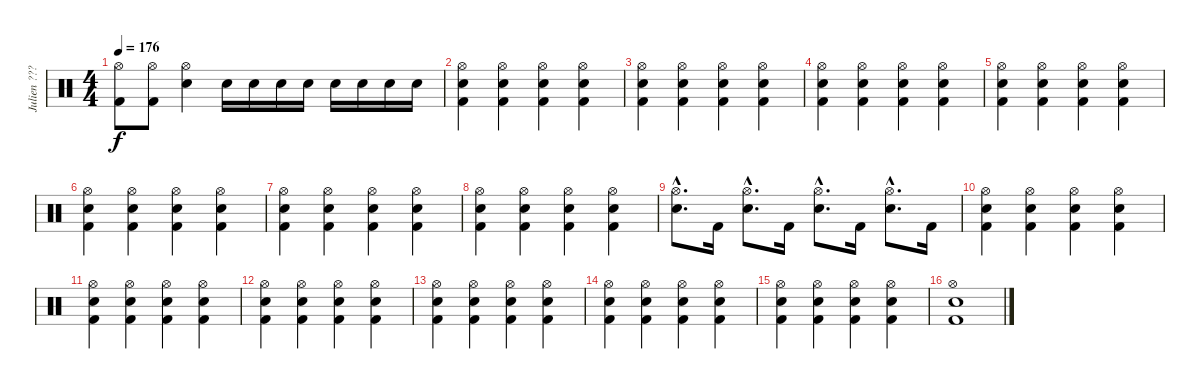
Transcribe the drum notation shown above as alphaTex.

\track ("Julien ??? (Drum)" "Julien ???") {instrument percussion}
\staff {score}
\articulation defaults
\ts (4 4)
\tempo 176
\clef neutral
\ks c
("Hi-Hat (open)" "Kick (hit) 2").8{dy f} ("Hi-Hat (open)" "Kick (hit) 2").8 ("Hi-Hat (open)" "Electric Snare (hit)").4 "Electric Snare (hit)".16 "Electric Snare (hit)".16 "Electric Snare (hit)".16 "Electric Snare (hit)".16 "Electric Snare (hit)".16 "Electric Snare (hit)".16 "Electric Snare (hit)".16 "Electric Snare (hit)".16 |
("Kick (hit) 2" "Hi-Hat (open)" "Electric Snare (hit)").4 ("Kick (hit) 2" "Hi-Hat (open)" "Electric Snare (hit)").4 ("Kick (hit) 2" "Hi-Hat (open)" "Electric Snare (hit)").4 ("Kick (hit) 2" "Hi-Hat (open)" "Electric Snare (hit)").4 |
("Kick (hit) 2" "Hi-Hat (open)" "Electric Snare (hit)").4 ("Kick (hit) 2" "Hi-Hat (open)" "Electric Snare (hit)").4 ("Kick (hit) 2" "Hi-Hat (open)" "Electric Snare (hit)").4 ("Kick (hit) 2" "Hi-Hat (open)" "Electric Snare (hit)").4 |
("Kick (hit) 2" "Hi-Hat (open)" "Electric Snare (hit)").4 ("Kick (hit) 2" "Hi-Hat (open)" "Electric Snare (hit)").4 ("Kick (hit) 2" "Hi-Hat (open)" "Electric Snare (hit)").4 ("Kick (hit) 2" "Hi-Hat (open)" "Electric Snare (hit)").4 |
("Kick (hit) 2" "Hi-Hat (open)" "Electric Snare (hit)").4 ("Kick (hit) 2" "Hi-Hat (open)" "Electric Snare (hit)").4 ("Kick (hit) 2" "Hi-Hat (open)" "Electric Snare (hit)").4 ("Kick (hit) 2" "Hi-Hat (open)" "Electric Snare (hit)").4 |
("Kick (hit) 2" "Hi-Hat (open)" "Electric Snare (hit)").4 ("Kick (hit) 2" "Hi-Hat (open)" "Electric Snare (hit)").4 ("Kick (hit) 2" "Hi-Hat (open)" "Electric Snare (hit)").4 ("Kick (hit) 2" "Hi-Hat (open)" "Electric Snare (hit)").4 |
("Kick (hit) 2" "Hi-Hat (open)" "Electric Snare (hit)").4 ("Kick (hit) 2" "Hi-Hat (open)" "Electric Snare (hit)").4 ("Kick (hit) 2" "Hi-Hat (open)" "Electric Snare (hit)").4 ("Kick (hit) 2" "Hi-Hat (open)" "Electric Snare (hit)").4 |
("Kick (hit) 2" "Hi-Hat (open)" "Electric Snare (hit)").4 ("Kick (hit) 2" "Hi-Hat (open)" "Electric Snare (hit)").4 ("Kick (hit) 2" "Hi-Hat (open)" "Electric Snare (hit)").4 ("Kick (hit) 2" "Hi-Hat (open)" "Electric Snare (hit)").4 |
("Hi-Hat (open)"{hac} "Electric Snare (hit)"{hac}).8{d} "Kick (hit) 2".16 ("Hi-Hat (open)"{hac} "Electric Snare (hit)"{hac}).8{d} "Kick (hit) 2".16 ("Hi-Hat (open)"{hac} "Electric Snare (hit)"{hac}).8{d} "Kick (hit) 2".16 ("Hi-Hat (open)"{hac} "Electric Snare (hit)"{hac}).8{d} "Kick (hit) 2".16 |
("Kick (hit) 2" "Hi-Hat (open)" "Electric Snare (hit)").4 ("Kick (hit) 2" "Hi-Hat (open)" "Electric Snare (hit)").4 ("Kick (hit) 2" "Hi-Hat (open)" "Electric Snare (hit)").4 ("Kick (hit) 2" "Hi-Hat (open)" "Electric Snare (hit)").4 |
("Kick (hit) 2" "Hi-Hat (open)" "Electric Snare (hit)").4 ("Kick (hit) 2" "Hi-Hat (open)" "Electric Snare (hit)").4 ("Kick (hit) 2" "Hi-Hat (open)" "Electric Snare (hit)").4 ("Kick (hit) 2" "Hi-Hat (open)" "Electric Snare (hit)").4 |
("Kick (hit) 2" "Hi-Hat (open)" "Electric Snare (hit)").4 ("Kick (hit) 2" "Hi-Hat (open)" "Electric Snare (hit)").4 ("Kick (hit) 2" "Hi-Hat (open)" "Electric Snare (hit)").4 ("Kick (hit) 2" "Hi-Hat (open)" "Electric Snare (hit)").4 |
("Kick (hit) 2" "Hi-Hat (open)" "Electric Snare (hit)").4 ("Kick (hit) 2" "Hi-Hat (open)" "Electric Snare (hit)").4 ("Kick (hit) 2" "Hi-Hat (open)" "Electric Snare (hit)").4 ("Kick (hit) 2" "Hi-Hat (open)" "Electric Snare (hit)").4 |
("Kick (hit) 2" "Hi-Hat (open)" "Electric Snare (hit)").4 ("Kick (hit) 2" "Hi-Hat (open)" "Electric Snare (hit)").4 ("Kick (hit) 2" "Hi-Hat (open)" "Electric Snare (hit)").4 ("Kick (hit) 2" "Hi-Hat (open)" "Electric Snare (hit)").4 |
("Kick (hit) 2" "Hi-Hat (open)" "Electric Snare (hit)").4 ("Kick (hit) 2" "Hi-Hat (open)" "Electric Snare (hit)").4 ("Kick (hit) 2" "Hi-Hat (open)" "Electric Snare (hit)").4 ("Kick (hit) 2" "Hi-Hat (open)" "Electric Snare (hit)").4 |
("Kick (hit) 2" "Hi-Hat (open)" "Electric Snare (hit)").1
